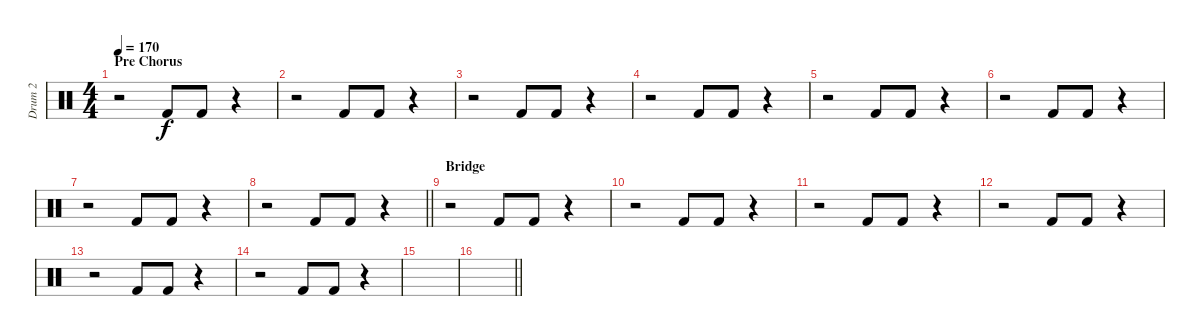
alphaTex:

\track ("Drum 2" "Drum 2") {instrument percussion}
\staff {score}
\articulation defaults
\ts (4 4)
\section ("" "Pre Chorus")
\tempo 170
\clef neutral
\ks c
r.2{dy f} "Kick (hit) 2".8 "Kick (hit) 2".8 r.4 |
r.2 "Kick (hit) 2".8 "Kick (hit) 2".8 r.4 |
r.2 "Kick (hit) 2".8 "Kick (hit) 2".8 r.4 |
r.2 "Kick (hit) 2".8 "Kick (hit) 2".8 r.4 |
r.2 "Kick (hit) 2".8 "Kick (hit) 2".8 r.4 |
r.2 "Kick (hit) 2".8 "Kick (hit) 2".8 r.4 |
r.2 "Kick (hit) 2".8 "Kick (hit) 2".8 r.4 |
\barLineRight lightlight
r.2 "Kick (hit) 2".8 "Kick (hit) 2".8 r.4 |
\section ("" "Bridge")
r.2 "Kick (hit) 2".8 "Kick (hit) 2".8 r.4 |
r.2 "Kick (hit) 2".8 "Kick (hit) 2".8 r.4 |
r.2 "Kick (hit) 2".8 "Kick (hit) 2".8 r.4 |
r.2 "Kick (hit) 2".8 "Kick (hit) 2".8 r.4 |
r.2 "Kick (hit) 2".8 "Kick (hit) 2".8 r.4 |
r.2 "Kick (hit) 2".8 "Kick (hit) 2".8 r.4 |
|
\barLineRight lightlight
